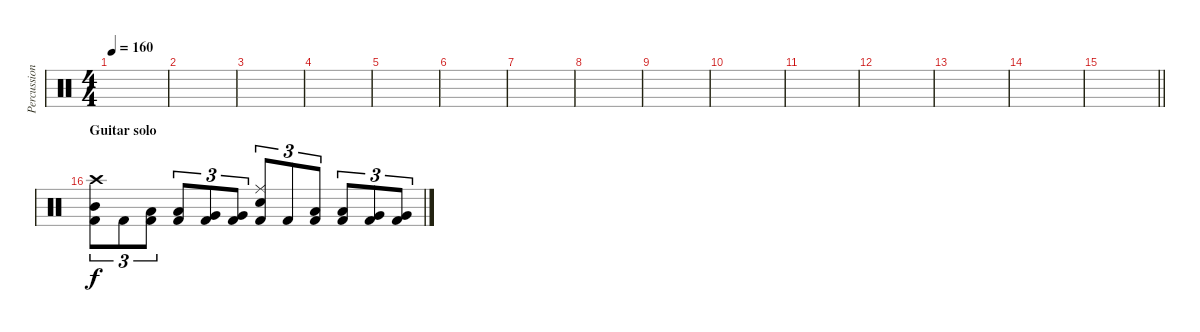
\track ("Percussion" "Percussion") {instrument percussion}
\staff {score}
\articulation defaults
\ts (4 4)
\tempo 160
\clef neutral
\ks c
|
|
|
|
|
|
|
|
|
|
|
|
|
|
\barLineRight lightlight
|
\section ("" "Guitar solo")
("Crash high (hit)" "Mid Tom (hit)" "Kick (hit) 2").8{tu (3 2)} "Kick (hit) 2".8{tu (3 2)} ("Low Tom (hit)" "Kick (hit) 2").8{tu (3 2)} ("Low Tom (hit)" "Kick (hit) 2").8{tu (3 2)} ("Very Low Tom (hit)" "Kick (hit) 2").8{tu (3 2)} ("Very Low Tom (hit)" "Kick (hit) 2").8{tu (3 2)} ("Ride (middle)" "Snare (hit) 2" "Kick (hit) 2").8{tu (3 2)} "Kick (hit) 2".8{tu (3 2)} ("Low Tom (hit)" "Kick (hit) 2").8{tu (3 2)} ("Low Tom (hit)" "Kick (hit) 2").8{tu (3 2)} ("Very Low Tom (hit)" "Kick (hit) 2").8{tu (3 2)} ("Very Low Tom (hit)" "Kick (hit) 2").8{tu (3 2)}
